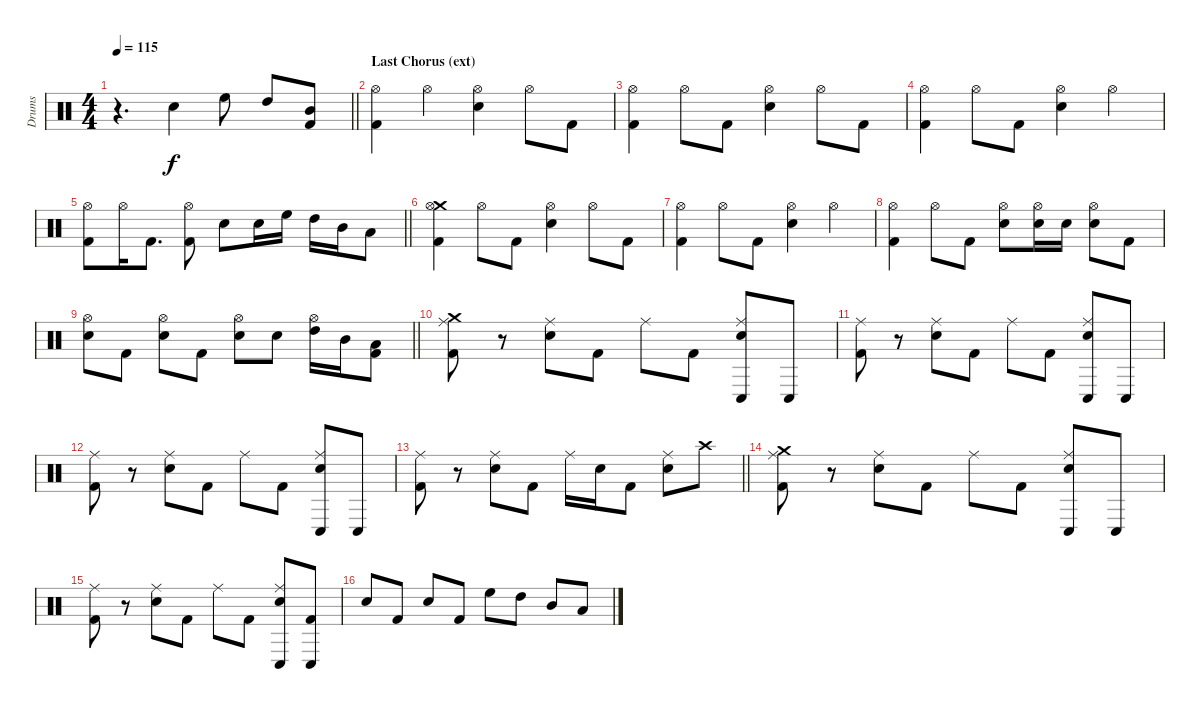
\track ("Drums" "Drums") {instrument percussion}
\staff {score}
\articulation defaults
\ts (4 4)
\tempo 115
\clef neutral
\barLineRight lightlight
\ks c
r.4{d dy f} "Electric Snare (hit)".4 "High Floor Tom (hit)".8 "High Tom (hit)".8 ("Mid Tom (hit)" "Kick (hit) 2").8 |
\section ("" "Last Chorus (ext)")
("Kick (hit) 2" "Hi-Hat (open)").4 "Hi-Hat (open)".4 ("Electric Snare (hit)" "Hi-Hat (open)").4 "Hi-Hat (open)".8 "Kick (hit) 2".8 |
("Kick (hit) 2" "Hi-Hat (open)").4 "Hi-Hat (open)".8 "Kick (hit) 2".8 ("Electric Snare (hit)" "Hi-Hat (open)").4 "Hi-Hat (open)".8 "Kick (hit) 2".8 |
("Kick (hit) 2" "Hi-Hat (open)").4 "Hi-Hat (open)".8 "Kick (hit) 2".8 ("Electric Snare (hit)" "Hi-Hat (open)").4 "Hi-Hat (open)".4 |
\barLineRight lightlight
("Kick (hit) 2" "Hi-Hat (open)").8 "Hi-Hat (open)".16 "Kick (hit) 2".8{d} ("Kick (hit) 2" "Hi-Hat (open)").8 "Electric Snare (hit)".8 "Electric Snare (hit)".16 "High Floor Tom (hit)".16 "High Tom (hit)".16 "Mid Tom (hit)".16 "Low Tom (hit)".8 |
("Crash medium (hit)" "Kick (hit) 2" "Hi-Hat (open)").4 "Hi-Hat (open)".8 "Kick (hit) 2".8 ("Electric Snare (hit)" "Hi-Hat (open)").4 "Hi-Hat (open)".8 "Kick (hit) 2".8 |
("Kick (hit) 2" "Hi-Hat (open)").4 "Hi-Hat (open)".8 "Kick (hit) 2".8 ("Electric Snare (hit)" "Hi-Hat (open)").4 "Hi-Hat (open)".4 |
("Kick (hit) 2" "Hi-Hat (open)").4 "Hi-Hat (open)".8 "Kick (hit) 2".8 ("Electric Snare (hit)" "Hi-Hat (open)").8 ("Electric Snare (hit)" "Hi-Hat (open)").16 "Electric Snare (hit)".16 ("Electric Snare (hit)" "Hi-Hat (open)").8 "Kick (hit) 2".8 |
\barLineRight lightlight
("Electric Snare (hit)" "Hi-Hat (open)").8 "Kick (hit) 2".8 ("Electric Snare (hit)" "Hi-Hat (open)").8 "Kick (hit) 2".8 ("Electric Snare (hit)" "Hi-Hat (open)").8 "Electric Snare (hit)".8 ("High Tom (hit)" "Hi-Hat (open)").16 "Mid Tom (hit)".16 ("Low Tom (hit)" "Kick (hit) 2").8 |
("Crash medium (hit)" "Kick (hit) 2" "Ride (middle)").8 r.8 ("Electric Snare (hit)" "Ride (middle)").8 "Kick (hit) 2".8 "Ride (middle)".8 "Kick (hit) 2".8 ("Conga low (hit)" "Electric Snare (hit)" "Ride (middle)").8 "Conga low (hit)".8 |
("Kick (hit) 2" "Ride (middle)").8 r.8 ("Electric Snare (hit)" "Ride (middle)").8 "Kick (hit) 2".8 "Ride (middle)".8 "Kick (hit) 2".8 ("Conga low (hit)" "Electric Snare (hit)" "Ride (middle)").8 "Conga low (hit)".8 |
("Kick (hit) 2" "Ride (middle)").8 r.8 ("Electric Snare (hit)" "Ride (middle)").8 "Kick (hit) 2".8 "Ride (middle)".8 "Kick (hit) 2".8 ("Conga low (hit)" "Electric Snare (hit)" "Ride (middle)").8 "Conga low (hit)".8 |
\barLineRight lightlight
("Kick (hit) 2" "Ride (middle)").8 r.8 ("Electric Snare (hit)" "Ride (middle)").8 "Kick (hit) 2".8 "Ride (middle)".16 "Electric Snare (hit)".16 "Kick (hit) 2".8 ("Electric Snare (hit)" "Ride (middle)").8 "Crash high (hit)".8 |
("Crash medium (hit)" "Kick (hit) 2" "Ride (middle)").8 r.8 ("Electric Snare (hit)" "Ride (middle)").8 "Kick (hit) 2".8 "Ride (middle)".8 "Kick (hit) 2".8 ("Conga low (hit)" "Electric Snare (hit)" "Ride (middle)").8 "Conga low (hit)".8 |
("Kick (hit) 2" "Ride (middle)").8 r.8 ("Electric Snare (hit)" "Ride (middle)").8 "Kick (hit) 2".8 "Ride (middle)".8 "Kick (hit) 2".8 ("Conga low (hit)" "Electric Snare (hit)" "Ride (middle)").8 ("Conga low (hit)" "Kick (hit) 2").8 |
"Electric Snare (hit)".8 "Kick (hit) 2".8 "Electric Snare (hit)".8 "Kick (hit) 2".8 "High Floor Tom (hit)".8 "High Tom (hit)".8 "Mid Tom (hit)".8 "Low Tom (hit)".8
